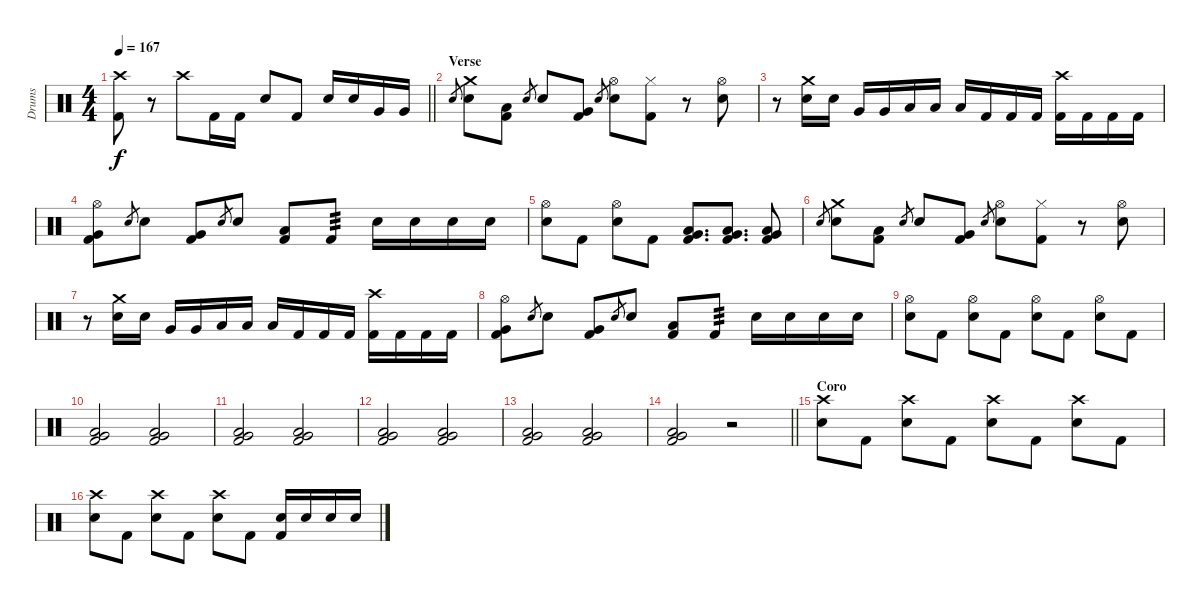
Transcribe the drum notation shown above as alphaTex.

\track ("Drums" "Drums") {instrument percussion}
\staff {score}
\articulation defaults
\ts (4 4)
\tempo 167
\clef neutral
\barLineRight lightlight
\ks c
("Crash high (hit)" "Kick (hit) 2").8{dy f} r.8 "Crash high (hit)".8 "Kick (hit) 2".16 "Kick (hit) 2".16 "Electric Snare (hit)".8 "Kick (hit) 2".8 "Electric Snare (hit)".16 "Electric Snare (hit)".16 "Very Low Tom (hit)".16 "Very Low Tom (hit)".16 |
\section ("" "Verse")
"Electric Snare (hit)".8{gr} ("Crash medium (hit)" "Electric Snare (hit)").8 ("Low Tom (hit)" "Kick (hit) 2").8 "Electric Snare (hit)".8{gr} "Electric Snare (hit)".8 ("Very Low Tom (hit)" "Kick (hit) 2").8 "Electric Snare (hit)".8{gr} ("Hi-Hat (open)" "Electric Snare (hit)").8 ("Hi-Hat (closed)" "Kick (hit) 2").8 r.8 ("Hi-Hat (open)" "Electric Snare (hit)").8 |
r.8 ("Crash medium (hit)" "Electric Snare (hit)").16 "Electric Snare (hit)".16 "Very Low Tom (hit)".16 "Very Low Tom (hit)".16 "Low Floor Tom (hit)".16 "Low Floor Tom (hit)".16 "Low Floor Tom (hit)".16 "Kick (hit) 2".16 "Kick (hit) 2".16 "Kick (hit) 2".16 ("Crash high (hit)" "Kick (hit) 2").16 "Kick (hit) 2".16 "Kick (hit) 2".16 "Kick (hit) 2".16 |
("Hi-Hat (open)" "Very Low Tom (hit)" "Kick (hit) 2").8 "Electric Snare (hit)".8{gr} "Electric Snare (hit)".8 ("Very Low Tom (hit)" "Kick (hit) 2").8 "Electric Snare (hit)".8{gr} "Electric Snare (hit)".8 ("Low Floor Tom (hit)" "Kick (hit) 2").8 "Kick (hit) 2".8{tp 3} "Electric Snare (hit)".16 "Electric Snare (hit)".16 "Electric Snare (hit)".16 "Electric Snare (hit)".16 |
("Hi-Hat (open)" "Electric Snare (hit)").8 "Kick (hit) 2".8 ("Hi-Hat (open)" "Electric Snare (hit)").8 "Kick (hit) 2".8 ("Low Floor Tom (hit)" "Very Low Tom (hit)" "Kick (hit) 2").8{d} ("Low Floor Tom (hit)" "Very Low Tom (hit)" "Kick (hit) 2").8{d} ("Low Floor Tom (hit)" "Very Low Tom (hit)" "Kick (hit) 2").8 |
"Electric Snare (hit)".8{gr} ("Crash medium (hit)" "Electric Snare (hit)").8 ("Low Tom (hit)" "Kick (hit) 2").8 "Electric Snare (hit)".8{gr} "Electric Snare (hit)".8 ("Very Low Tom (hit)" "Kick (hit) 2").8 "Electric Snare (hit)".8{gr} ("Hi-Hat (open)" "Electric Snare (hit)").8 ("Hi-Hat (closed)" "Kick (hit) 2").8 r.8 ("Hi-Hat (open)" "Electric Snare (hit)").8 |
r.8 ("Crash medium (hit)" "Electric Snare (hit)").16 "Electric Snare (hit)".16 "Very Low Tom (hit)".16 "Very Low Tom (hit)".16 "Low Floor Tom (hit)".16 "Low Floor Tom (hit)".16 "Low Floor Tom (hit)".16 "Kick (hit) 2".16 "Kick (hit) 2".16 "Kick (hit) 2".16 ("Crash high (hit)" "Kick (hit) 2").16 "Kick (hit) 2".16 "Kick (hit) 2".16 "Kick (hit) 2".16 |
("Hi-Hat (open)" "Very Low Tom (hit)" "Kick (hit) 2").8 "Electric Snare (hit)".8{gr} "Electric Snare (hit)".8 ("Very Low Tom (hit)" "Kick (hit) 2").8 "Electric Snare (hit)".8{gr} "Electric Snare (hit)".8 ("Low Floor Tom (hit)" "Kick (hit) 2").8 "Kick (hit) 2".8{tp 3} "Electric Snare (hit)".16 "Electric Snare (hit)".16 "Electric Snare (hit)".16 "Electric Snare (hit)".16 |
("Hi-Hat (open)" "Electric Snare (hit)").8 "Kick (hit) 2".8 ("Hi-Hat (open)" "Electric Snare (hit)").8 "Kick (hit) 2".8 ("Hi-Hat (open)" "Electric Snare (hit)").8 "Kick (hit) 2".8 ("Hi-Hat (open)" "Electric Snare (hit)").8 "Kick (hit) 2".8 |
("Very Low Tom (hit)" "Low Floor Tom (hit)" "Kick (hit) 2").2 ("Very Low Tom (hit)" "Low Floor Tom (hit)" "Kick (hit) 2").2 |
("Very Low Tom (hit)" "Low Floor Tom (hit)" "Kick (hit) 2").2 ("Very Low Tom (hit)" "Low Floor Tom (hit)" "Kick (hit) 2").2 |
("Very Low Tom (hit)" "Low Floor Tom (hit)" "Kick (hit) 2").2 ("Very Low Tom (hit)" "Low Floor Tom (hit)" "Kick (hit) 2").2 |
("Very Low Tom (hit)" "Low Floor Tom (hit)" "Kick (hit) 2").2 ("Very Low Tom (hit)" "Low Floor Tom (hit)" "Kick (hit) 2").2 |
\barLineRight lightlight
("Very Low Tom (hit)" "Low Floor Tom (hit)" "Kick (hit) 2").2 r.2 |
\section ("" "Coro")
("Crash high (hit)" "Electric Snare (hit)").8 "Kick (hit) 2".8 ("Crash high (hit)" "Electric Snare (hit)").8 "Kick (hit) 2".8 ("Crash high (hit)" "Electric Snare (hit)").8 "Kick (hit) 2".8 ("Crash high (hit)" "Electric Snare (hit)").8 "Kick (hit) 2".8 |
("Crash high (hit)" "Electric Snare (hit)").8 "Kick (hit) 2".8 ("Crash high (hit)" "Electric Snare (hit)").8 "Kick (hit) 2".8 ("Crash high (hit)" "Electric Snare (hit)").8 "Kick (hit) 2".8 ("Electric Snare (hit)" "Kick (hit) 2").16 "Electric Snare (hit)".16 "Electric Snare (hit)".16 "Electric Snare (hit)".16
